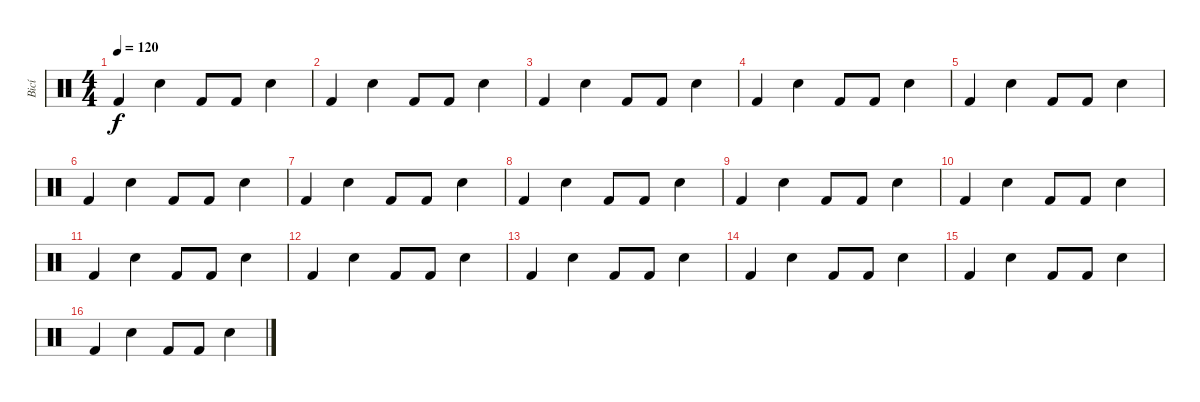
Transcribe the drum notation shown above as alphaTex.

\track ("Bicí" "Bicí") {instrument percussion}
\staff {score}
\articulation defaults
\ts (4 4)
\tempo 120
\clef neutral
\ks c "Kick (hit) 2".4{dy f} "Electric Snare (hit)".4 "Kick (hit) 2".8 "Kick (hit) 2".8 "Electric Snare (hit)".4
|
"Kick (hit) 2".4 "Electric Snare (hit)".4 "Kick (hit) 2".8 "Kick (hit) 2".8 "Electric Snare (hit)".4 |
"Kick (hit) 2".4 "Electric Snare (hit)".4 "Kick (hit) 2".8 "Kick (hit) 2".8 "Electric Snare (hit)".4 |
"Kick (hit) 2".4 "Electric Snare (hit)".4 "Kick (hit) 2".8 "Kick (hit) 2".8 "Electric Snare (hit)".4 |
"Kick (hit) 2".4 "Electric Snare (hit)".4 "Kick (hit) 2".8 "Kick (hit) 2".8 "Electric Snare (hit)".4 |
"Kick (hit) 2".4 "Electric Snare (hit)".4 "Kick (hit) 2".8 "Kick (hit) 2".8 "Electric Snare (hit)".4 |
"Kick (hit) 2".4 "Electric Snare (hit)".4 "Kick (hit) 2".8 "Kick (hit) 2".8 "Electric Snare (hit)".4 |
"Kick (hit) 2".4 "Electric Snare (hit)".4 "Kick (hit) 2".8 "Kick (hit) 2".8 "Electric Snare (hit)".4 |
"Kick (hit) 2".4 "Electric Snare (hit)".4 "Kick (hit) 2".8 "Kick (hit) 2".8 "Electric Snare (hit)".4 |
"Kick (hit) 2".4 "Electric Snare (hit)".4 "Kick (hit) 2".8 "Kick (hit) 2".8 "Electric Snare (hit)".4 |
"Kick (hit) 2".4 "Electric Snare (hit)".4 "Kick (hit) 2".8 "Kick (hit) 2".8 "Electric Snare (hit)".4 |
"Kick (hit) 2".4 "Electric Snare (hit)".4 "Kick (hit) 2".8 "Kick (hit) 2".8 "Electric Snare (hit)".4 |
"Kick (hit) 2".4 "Electric Snare (hit)".4 "Kick (hit) 2".8 "Kick (hit) 2".8 "Electric Snare (hit)".4 |
"Kick (hit) 2".4 "Electric Snare (hit)".4 "Kick (hit) 2".8 "Kick (hit) 2".8 "Electric Snare (hit)".4 |
"Kick (hit) 2".4 "Electric Snare (hit)".4 "Kick (hit) 2".8 "Kick (hit) 2".8 "Electric Snare (hit)".4 |
"Kick (hit) 2".4 "Electric Snare (hit)".4 "Kick (hit) 2".8 "Kick (hit) 2".8 "Electric Snare (hit)".4
